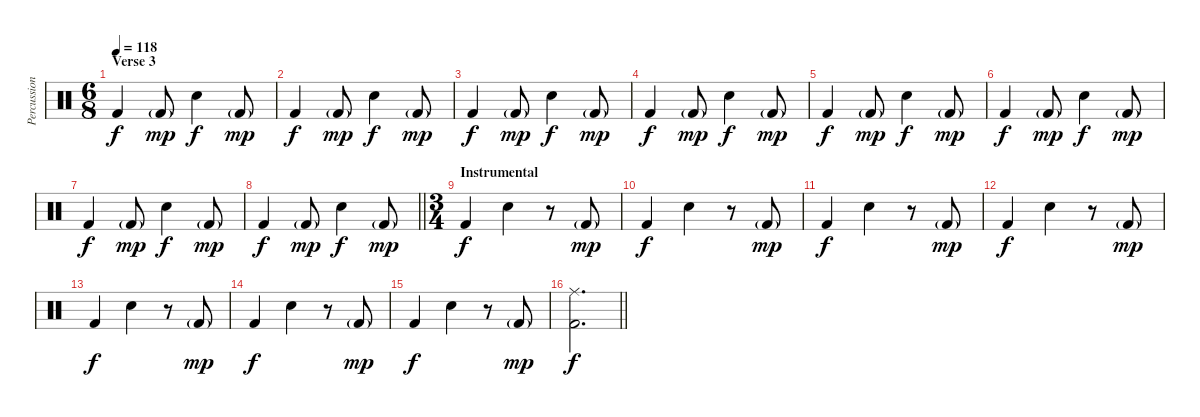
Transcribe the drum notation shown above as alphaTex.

\track ("Percussion" "Percussion") {instrument percussion}
\staff {score}
\articulation defaults
\ts (6 8)
\section ("" "Verse 3")
\tempo 118
\clef neutral
\ks c "Kick (hit) 2".4{dy f} "Kick (hit) 2"{g}.8{dy mp} "Snare (hit) 2".4{dy f} "Kick (hit) 2"{g}.8{dy mp}
|
"Kick (hit) 2".4{dy f} "Kick (hit) 2"{g}.8{dy mp} "Snare (hit) 2".4{dy f} "Kick (hit) 2"{g}.8{dy mp} |
"Kick (hit) 2".4{dy f} "Kick (hit) 2"{g}.8{dy mp} "Snare (hit) 2".4{dy f} "Kick (hit) 2"{g}.8{dy mp} |
"Kick (hit) 2".4{dy f} "Kick (hit) 2"{g}.8{dy mp} "Snare (hit) 2".4{dy f} "Kick (hit) 2"{g}.8{dy mp} |
"Kick (hit) 2".4{dy f} "Kick (hit) 2"{g}.8{dy mp} "Snare (hit) 2".4{dy f} "Kick (hit) 2"{g}.8{dy mp} |
"Kick (hit) 2".4{dy f} "Kick (hit) 2"{g}.8{dy mp} "Snare (hit) 2".4{dy f} "Kick (hit) 2"{g}.8{dy mp} |
"Kick (hit) 2".4{dy f} "Kick (hit) 2"{g}.8{dy mp} "Snare (hit) 2".4{dy f} "Kick (hit) 2"{g}.8{dy mp} |
\barLineRight lightlight "Kick (hit) 2".4{dy f} "Kick (hit) 2"{g}.8{dy mp} "Snare (hit) 2".4{dy f} "Kick (hit) 2"{g}.8{dy mp}
|
\ts (3 4)
\section ("" "Instrumental")
"Kick (hit) 2".4{dy f} "Snare (hit) 2".4 r.8 "Kick (hit) 2"{g}.8{dy mp} |
"Kick (hit) 2".4{dy f} "Snare (hit) 2".4 r.8 "Kick (hit) 2"{g}.8{dy mp} |
"Kick (hit) 2".4{dy f} "Snare (hit) 2".4 r.8 "Kick (hit) 2"{g}.8{dy mp} |
"Kick (hit) 2".4{dy f} "Snare (hit) 2".4 r.8 "Kick (hit) 2"{g}.8{dy mp} |
"Kick (hit) 2".4{dy f} "Snare (hit) 2".4 r.8 "Kick (hit) 2"{g}.8{dy mp} |
"Kick (hit) 2".4{dy f} "Snare (hit) 2".4 r.8 "Kick (hit) 2"{g}.8{dy mp} |
"Kick (hit) 2".4{dy f} "Snare (hit) 2".4 r.8 "Kick (hit) 2"{g}.8{dy mp} |
\barLineRight lightlight
("Ride (middle)" "Kick (hit) 2").2{d dy f}
